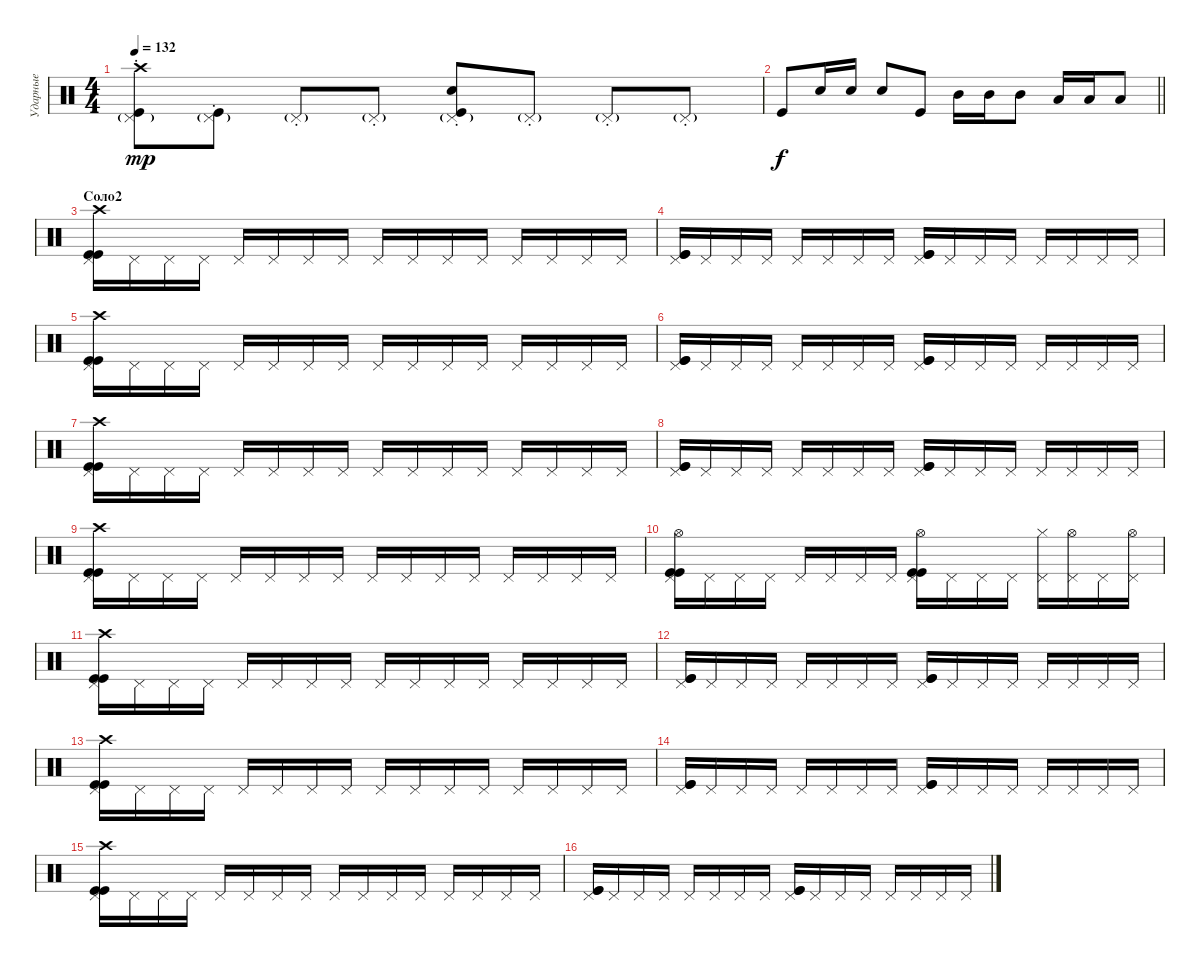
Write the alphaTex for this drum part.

\track ("Ударные" "Ударные") {instrument percussion}
\staff {score}
\articulation defaults
\ts (4 4)
\tempo 132
\clef neutral
\ks c
("Pedal Hi-Hat (hit)"{g st} "Kick (hit)" "Crash high (hit)").8{dy mp} ("Pedal Hi-Hat (hit)"{g st} "Kick (hit)").8 "Pedal Hi-Hat (hit)"{g st}.8 "Pedal Hi-Hat (hit)"{g st}.8 ("Pedal Hi-Hat (hit)"{g st} "Electric Snare (hit)" "Kick (hit)").8 "Pedal Hi-Hat (hit)"{g st}.8 "Pedal Hi-Hat (hit)"{g st}.8 "Pedal Hi-Hat (hit)"{g st}.8 |
\barLineRight lightlight "Kick (hit)".8{dy f} "Electric Snare (hit)".16 "Electric Snare (hit)".16 "Electric Snare (hit)".8 "Kick (hit)".8 "Mid Tom (hit)".16 "Mid Tom (hit)".16 "Mid Tom (hit)".8 "Low Tom (hit)".16 "Low Tom (hit)".16 "Low Tom (hit)".8
|
\section ("" "Соло2")
("Pedal Hi-Hat (hit)" "Crash high (hit)" "Kick (hit)" "Kick (hit)").16 "Pedal Hi-Hat (hit)".16 "Pedal Hi-Hat (hit)".16 "Pedal Hi-Hat (hit)".16 "Pedal Hi-Hat (hit)".16 "Pedal Hi-Hat (hit)".16 "Pedal Hi-Hat (hit)".16 "Pedal Hi-Hat (hit)".16 "Pedal Hi-Hat (hit)".16 "Pedal Hi-Hat (hit)".16 "Pedal Hi-Hat (hit)".16 "Pedal Hi-Hat (hit)".16 "Pedal Hi-Hat (hit)".16 "Pedal Hi-Hat (hit)".16 "Pedal Hi-Hat (hit)".16 "Pedal Hi-Hat (hit)".16 |
("Pedal Hi-Hat (hit)" "Kick (hit)" "Kick (hit)").16 "Pedal Hi-Hat (hit)".16 "Pedal Hi-Hat (hit)".16 "Pedal Hi-Hat (hit)".16 "Pedal Hi-Hat (hit)".16 "Pedal Hi-Hat (hit)".16 "Pedal Hi-Hat (hit)".16 "Pedal Hi-Hat (hit)".16 ("Pedal Hi-Hat (hit)" "Kick (hit)" "Kick (hit)").16 "Pedal Hi-Hat (hit)".16 "Pedal Hi-Hat (hit)".16 "Pedal Hi-Hat (hit)".16 "Pedal Hi-Hat (hit)".16 "Pedal Hi-Hat (hit)".16 "Pedal Hi-Hat (hit)".16 "Pedal Hi-Hat (hit)".16 |
("Pedal Hi-Hat (hit)" "Crash high (hit)" "Kick (hit)" "Kick (hit)").16 "Pedal Hi-Hat (hit)".16 "Pedal Hi-Hat (hit)".16 "Pedal Hi-Hat (hit)".16 "Pedal Hi-Hat (hit)".16 "Pedal Hi-Hat (hit)".16 "Pedal Hi-Hat (hit)".16 "Pedal Hi-Hat (hit)".16 "Pedal Hi-Hat (hit)".16 "Pedal Hi-Hat (hit)".16 "Pedal Hi-Hat (hit)".16 "Pedal Hi-Hat (hit)".16 "Pedal Hi-Hat (hit)".16 "Pedal Hi-Hat (hit)".16 "Pedal Hi-Hat (hit)".16 "Pedal Hi-Hat (hit)".16 |
("Pedal Hi-Hat (hit)" "Kick (hit)" "Kick (hit)").16 "Pedal Hi-Hat (hit)".16 "Pedal Hi-Hat (hit)".16 "Pedal Hi-Hat (hit)".16 "Pedal Hi-Hat (hit)".16 "Pedal Hi-Hat (hit)".16 "Pedal Hi-Hat (hit)".16 "Pedal Hi-Hat (hit)".16 ("Pedal Hi-Hat (hit)" "Kick (hit)" "Kick (hit)").16 "Pedal Hi-Hat (hit)".16 "Pedal Hi-Hat (hit)".16 "Pedal Hi-Hat (hit)".16 "Pedal Hi-Hat (hit)".16 "Pedal Hi-Hat (hit)".16 "Pedal Hi-Hat (hit)".16 "Pedal Hi-Hat (hit)".16 |
("Pedal Hi-Hat (hit)" "Crash high (hit)" "Kick (hit)" "Kick (hit)").16 "Pedal Hi-Hat (hit)".16 "Pedal Hi-Hat (hit)".16 "Pedal Hi-Hat (hit)".16 "Pedal Hi-Hat (hit)".16 "Pedal Hi-Hat (hit)".16 "Pedal Hi-Hat (hit)".16 "Pedal Hi-Hat (hit)".16 "Pedal Hi-Hat (hit)".16 "Pedal Hi-Hat (hit)".16 "Pedal Hi-Hat (hit)".16 "Pedal Hi-Hat (hit)".16 "Pedal Hi-Hat (hit)".16 "Pedal Hi-Hat (hit)".16 "Pedal Hi-Hat (hit)".16 "Pedal Hi-Hat (hit)".16 |
("Pedal Hi-Hat (hit)" "Kick (hit)" "Kick (hit)").16 "Pedal Hi-Hat (hit)".16 "Pedal Hi-Hat (hit)".16 "Pedal Hi-Hat (hit)".16 "Pedal Hi-Hat (hit)".16 "Pedal Hi-Hat (hit)".16 "Pedal Hi-Hat (hit)".16 "Pedal Hi-Hat (hit)".16 ("Pedal Hi-Hat (hit)" "Kick (hit)" "Kick (hit)").16 "Pedal Hi-Hat (hit)".16 "Pedal Hi-Hat (hit)".16 "Pedal Hi-Hat (hit)".16 "Pedal Hi-Hat (hit)".16 "Pedal Hi-Hat (hit)".16 "Pedal Hi-Hat (hit)".16 "Pedal Hi-Hat (hit)".16 |
("Pedal Hi-Hat (hit)" "Crash high (hit)" "Kick (hit)" "Kick (hit)").16 "Pedal Hi-Hat (hit)".16 "Pedal Hi-Hat (hit)".16 "Pedal Hi-Hat (hit)".16 "Pedal Hi-Hat (hit)".16 "Pedal Hi-Hat (hit)".16 "Pedal Hi-Hat (hit)".16 "Pedal Hi-Hat (hit)".16 "Pedal Hi-Hat (hit)".16 "Pedal Hi-Hat (hit)".16 "Pedal Hi-Hat (hit)".16 "Pedal Hi-Hat (hit)".16 "Pedal Hi-Hat (hit)".16 "Pedal Hi-Hat (hit)".16 "Pedal Hi-Hat (hit)".16 "Pedal Hi-Hat (hit)".16 |
("Pedal Hi-Hat (hit)" "Hi-Hat (open)" "Kick (hit)" "Kick (hit)").16 "Pedal Hi-Hat (hit)".16 "Pedal Hi-Hat (hit)".16 "Pedal Hi-Hat (hit)".16 "Pedal Hi-Hat (hit)".16 "Pedal Hi-Hat (hit)".16 "Pedal Hi-Hat (hit)".16 "Pedal Hi-Hat (hit)".16 ("Pedal Hi-Hat (hit)" "Hi-Hat (open)" "Kick (hit)" "Kick (hit)").16 "Pedal Hi-Hat (hit)".16 "Pedal Hi-Hat (hit)".16 "Pedal Hi-Hat (hit)".16 ("Pedal Hi-Hat (hit)" "Hi-Hat (closed)").16 ("Pedal Hi-Hat (hit)" "Hi-Hat (open)").16 "Pedal Hi-Hat (hit)".16 ("Pedal Hi-Hat (hit)" "Hi-Hat (open)").16 |
("Pedal Hi-Hat (hit)" "Crash high (hit)" "Kick (hit)" "Kick (hit)").16 "Pedal Hi-Hat (hit)".16 "Pedal Hi-Hat (hit)".16 "Pedal Hi-Hat (hit)".16 "Pedal Hi-Hat (hit)".16 "Pedal Hi-Hat (hit)".16 "Pedal Hi-Hat (hit)".16 "Pedal Hi-Hat (hit)".16 "Pedal Hi-Hat (hit)".16 "Pedal Hi-Hat (hit)".16 "Pedal Hi-Hat (hit)".16 "Pedal Hi-Hat (hit)".16 "Pedal Hi-Hat (hit)".16 "Pedal Hi-Hat (hit)".16 "Pedal Hi-Hat (hit)".16 "Pedal Hi-Hat (hit)".16 |
("Pedal Hi-Hat (hit)" "Kick (hit)" "Kick (hit)").16 "Pedal Hi-Hat (hit)".16 "Pedal Hi-Hat (hit)".16 "Pedal Hi-Hat (hit)".16 "Pedal Hi-Hat (hit)".16 "Pedal Hi-Hat (hit)".16 "Pedal Hi-Hat (hit)".16 "Pedal Hi-Hat (hit)".16 ("Pedal Hi-Hat (hit)" "Kick (hit)" "Kick (hit)").16 "Pedal Hi-Hat (hit)".16 "Pedal Hi-Hat (hit)".16 "Pedal Hi-Hat (hit)".16 "Pedal Hi-Hat (hit)".16 "Pedal Hi-Hat (hit)".16 "Pedal Hi-Hat (hit)".16 "Pedal Hi-Hat (hit)".16 |
("Pedal Hi-Hat (hit)" "Crash high (hit)" "Kick (hit)" "Kick (hit)").16 "Pedal Hi-Hat (hit)".16 "Pedal Hi-Hat (hit)".16 "Pedal Hi-Hat (hit)".16 "Pedal Hi-Hat (hit)".16 "Pedal Hi-Hat (hit)".16 "Pedal Hi-Hat (hit)".16 "Pedal Hi-Hat (hit)".16 "Pedal Hi-Hat (hit)".16 "Pedal Hi-Hat (hit)".16 "Pedal Hi-Hat (hit)".16 "Pedal Hi-Hat (hit)".16 "Pedal Hi-Hat (hit)".16 "Pedal Hi-Hat (hit)".16 "Pedal Hi-Hat (hit)".16 "Pedal Hi-Hat (hit)".16 |
("Pedal Hi-Hat (hit)" "Kick (hit)" "Kick (hit)").16 "Pedal Hi-Hat (hit)".16 "Pedal Hi-Hat (hit)".16 "Pedal Hi-Hat (hit)".16 "Pedal Hi-Hat (hit)".16 "Pedal Hi-Hat (hit)".16 "Pedal Hi-Hat (hit)".16 "Pedal Hi-Hat (hit)".16 ("Pedal Hi-Hat (hit)" "Kick (hit)" "Kick (hit)").16 "Pedal Hi-Hat (hit)".16 "Pedal Hi-Hat (hit)".16 "Pedal Hi-Hat (hit)".16 "Pedal Hi-Hat (hit)".16 "Pedal Hi-Hat (hit)".16 "Pedal Hi-Hat (hit)".16 "Pedal Hi-Hat (hit)".16 |
("Pedal Hi-Hat (hit)" "Crash high (hit)" "Kick (hit)" "Kick (hit)").16 "Pedal Hi-Hat (hit)".16 "Pedal Hi-Hat (hit)".16 "Pedal Hi-Hat (hit)".16 "Pedal Hi-Hat (hit)".16 "Pedal Hi-Hat (hit)".16 "Pedal Hi-Hat (hit)".16 "Pedal Hi-Hat (hit)".16 "Pedal Hi-Hat (hit)".16 "Pedal Hi-Hat (hit)".16 "Pedal Hi-Hat (hit)".16 "Pedal Hi-Hat (hit)".16 "Pedal Hi-Hat (hit)".16 "Pedal Hi-Hat (hit)".16 "Pedal Hi-Hat (hit)".16 "Pedal Hi-Hat (hit)".16 |
("Pedal Hi-Hat (hit)" "Kick (hit)" "Kick (hit)").16 "Pedal Hi-Hat (hit)".16 "Pedal Hi-Hat (hit)".16 "Pedal Hi-Hat (hit)".16 "Pedal Hi-Hat (hit)".16 "Pedal Hi-Hat (hit)".16 "Pedal Hi-Hat (hit)".16 "Pedal Hi-Hat (hit)".16 ("Pedal Hi-Hat (hit)" "Kick (hit)" "Kick (hit)").16 "Pedal Hi-Hat (hit)".16 "Pedal Hi-Hat (hit)".16 "Pedal Hi-Hat (hit)".16 "Pedal Hi-Hat (hit)".16 "Pedal Hi-Hat (hit)".16 "Pedal Hi-Hat (hit)".16 "Pedal Hi-Hat (hit)".16
